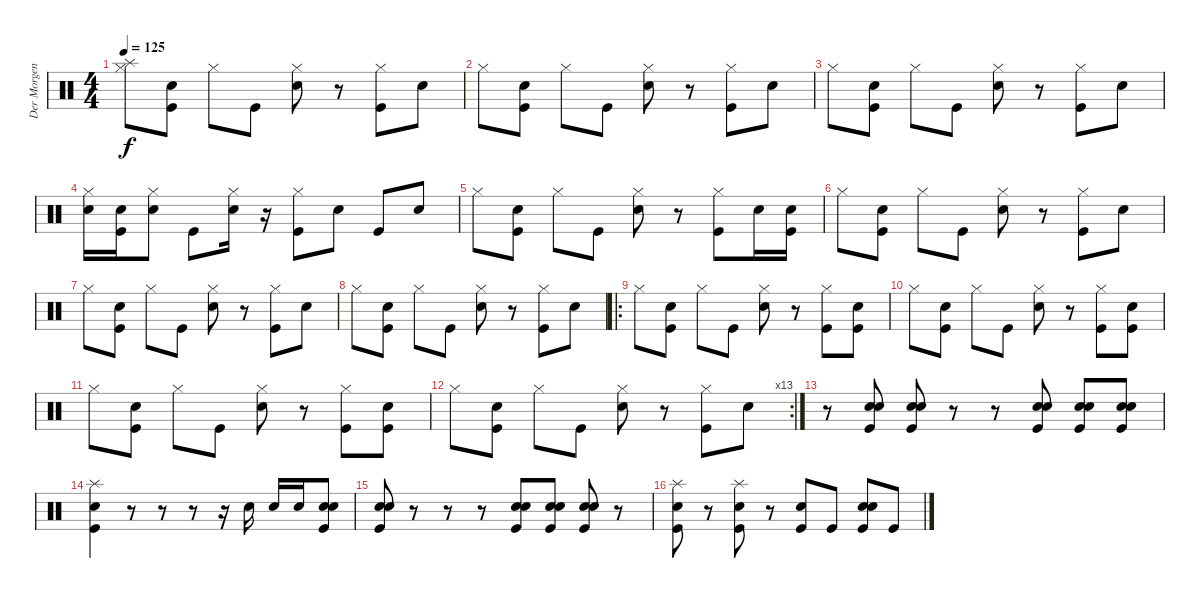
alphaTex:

\track ("Der Morgenstern" "Der Morgen") {instrument percussion}
\staff {score}
\articulation defaults
\ts (4 4)
\tempo 125
\clef neutral
\ks c
("Hi-Hat (closed)" "Splash (hit)").8{dy f} ("Snare (hit) 2" "Kick (hit)").8 "Hi-Hat (closed)".8 "Kick (hit)".8 ("Hi-Hat (closed)" "Snare (hit) 2").8 r.8 ("Hi-Hat (closed)" "Kick (hit)").8 "Snare (hit) 2".8 |
"Hi-Hat (closed)".8 ("Snare (hit) 2" "Kick (hit)").8 "Hi-Hat (closed)".8 "Kick (hit)".8 ("Hi-Hat (closed)" "Snare (hit) 2").8 r.8 ("Hi-Hat (closed)" "Kick (hit)").8 "Snare (hit) 2".8 |
"Hi-Hat (closed)".8 ("Snare (hit) 2" "Kick (hit)").8 "Hi-Hat (closed)".8 "Kick (hit)".8 ("Hi-Hat (closed)" "Snare (hit) 2").8 r.8 ("Hi-Hat (closed)" "Kick (hit)").8 "Snare (hit) 2".8 |
("Hi-Hat (closed)" "Snare (hit) 2").16 ("Snare (hit) 2" "Kick (hit)").16 ("Hi-Hat (closed)" "Snare (hit) 2").8 "Kick (hit)".8 ("Hi-Hat (closed)" "Snare (hit) 2").16 r.16 ("Hi-Hat (closed)" "Kick (hit)").8 "Snare (hit) 2".8 "Kick (hit)".8 "Snare (hit) 2".8 |
"Hi-Hat (closed)".8 ("Snare (hit) 2" "Kick (hit)").8 "Hi-Hat (closed)".8 "Kick (hit)".8 ("Hi-Hat (closed)" "Snare (hit) 2").8 r.8 ("Hi-Hat (closed)" "Kick (hit)").8 "Snare (hit) 2".16 ("Snare (hit) 2" "Kick (hit)").16 |
"Hi-Hat (closed)".8 ("Snare (hit) 2" "Kick (hit)").8 "Hi-Hat (closed)".8 "Kick (hit)".8 ("Hi-Hat (closed)" "Snare (hit) 2").8 r.8 ("Hi-Hat (closed)" "Kick (hit)").8 "Snare (hit) 2".8 |
"Hi-Hat (closed)".8 ("Snare (hit) 2" "Kick (hit)").8 "Hi-Hat (closed)".8 "Kick (hit)".8 ("Hi-Hat (closed)" "Snare (hit) 2").8 r.8 ("Hi-Hat (closed)" "Kick (hit)").8 "Snare (hit) 2".8 |
"Hi-Hat (closed)".8 ("Snare (hit) 2" "Kick (hit)").8 "Hi-Hat (closed)".8 "Kick (hit)".8 ("Hi-Hat (closed)" "Snare (hit) 2").8 r.8 ("Hi-Hat (closed)" "Kick (hit)").8 "Snare (hit) 2".8 |
\ro "Hi-Hat (closed)".8
("Snare (hit) 2" "Kick (hit)").8 "Hi-Hat (closed)".8 "Kick (hit)".8 ("Hi-Hat (closed)" "Snare (hit) 2").8 r.8 ("Hi-Hat (closed)" "Kick (hit)").8 ("Snare (hit) 2" "Kick (hit)").8 |
"Hi-Hat (closed)".8 ("Snare (hit) 2" "Kick (hit)").8 "Hi-Hat (closed)".8 "Kick (hit)".8 ("Hi-Hat (closed)" "Snare (hit) 2").8 r.8 ("Hi-Hat (closed)" "Kick (hit)").8 ("Snare (hit) 2" "Kick (hit)").8 |
"Hi-Hat (closed)".8 ("Snare (hit) 2" "Kick (hit)").8 "Hi-Hat (closed)".8 "Kick (hit)".8 ("Hi-Hat (closed)" "Snare (hit) 2").8 r.8 ("Hi-Hat (closed)" "Kick (hit)").8 ("Snare (hit) 2" "Kick (hit)").8 |
\rc 13 "Hi-Hat (closed)".8
("Snare (hit) 2" "Kick (hit)").8 "Hi-Hat (closed)".8 "Kick (hit)".8 ("Hi-Hat (closed)" "Snare (hit) 2").8 r.8 ("Hi-Hat (closed)" "Kick (hit)").8 "Snare (hit) 2".8 |
r.8 ("Snare (hit) 2" "Snare (hit) 2" "Kick (hit)").8 ("Snare (hit) 2" "Snare (hit) 2" "Kick (hit)").8 r.8 r.8 ("Snare (hit) 2" "Snare (hit) 2" "Kick (hit)").8 ("Snare (hit) 2" "Snare (hit) 2" "Kick (hit)").8 ("Snare (hit) 2" "Snare (hit) 2" "Kick (hit)").8 |
("Splash (hit)" "Snare (hit) 2" "Kick (hit)").4 r.8 r.8 r.8 r.16 "Snare (hit) 2".16 "Snare (hit) 2".16 "Snare (hit) 2".16 ("Snare (hit) 2" "Snare (hit) 2" "Kick (hit)").8 |
("Snare (hit) 2" "Snare (hit) 2" "Kick (hit)").8 r.8 r.8 r.8 ("Snare (hit) 2" "Snare (hit) 2" "Kick (hit)").8 ("Snare (hit) 2" "Snare (hit) 2" "Kick (hit)").8 ("Snare (hit) 2" "Snare (hit) 2" "Kick (hit)").8 r.8 |
("Snare (hit) 2" "Splash (hit)" "Kick (hit)").8 r.8 ("Snare (hit) 2" "Splash (hit)" "Kick (hit)").8 r.8 ("Snare (hit) 2" "Kick (hit)").8 "Kick (hit)".8 ("Snare (hit) 2" "Snare (hit) 2" "Kick (hit)").8 "Kick (hit)".8
